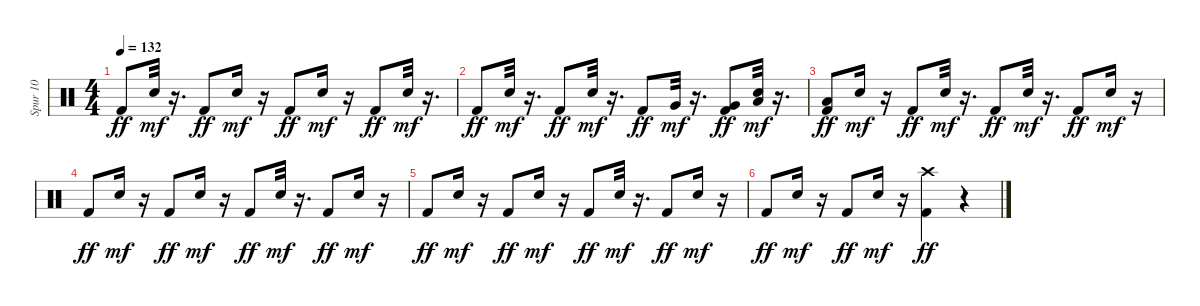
\track ("Spur 10" "Spur 10") {instrument percussion}
\staff {score}
\articulation defaults
\ts (4 4)
\tempo 132
\clef neutral
\ks c "Kick (hit) 2".8{dy ff} "Snare (hit) 2".32{dy mf}
r.16{d} "Kick (hit) 2".8{dy ff} "Snare (hit) 2".16{dy mf} r.16 "Kick (hit) 2".8{dy ff} "Snare (hit) 2".16{dy mf} r.16 "Kick (hit) 2".8{dy ff} "Snare (hit) 2".32{dy mf} r.16{d} |
"Kick (hit) 2".8{dy ff} "Snare (hit) 2".32{dy mf} r.16{d} "Kick (hit) 2".8{dy ff} "Snare (hit) 2".32{dy mf} r.16{d} "Kick (hit) 2".8{dy ff} "Very Low Tom (hit)".32{dy mf} r.16{d} ("Very Low Tom (hit)" "Kick (hit) 2").8{dy ff} ("Snare (hit) 2" "Low Floor Tom (hit)").32{dy mf} r.16{d} |
("Low Floor Tom (hit)" "Kick (hit) 2").8{dy ff} "Snare (hit) 2".16{dy mf} r.16 "Kick (hit) 2".8{dy ff} "Snare (hit) 2".32{dy mf} r.16{d} "Kick (hit) 2".8{dy ff} "Snare (hit) 2".32{dy mf} r.16{d} "Kick (hit) 2".8{dy ff} "Snare (hit) 2".16{dy mf} r.16 |
"Kick (hit) 2".8{dy ff} "Snare (hit) 2".16{dy mf} r.16 "Kick (hit) 2".8{dy ff} "Snare (hit) 2".16{dy mf} r.16 "Kick (hit) 2".8{dy ff} "Snare (hit) 2".32{dy mf} r.16{d} "Kick (hit) 2".8{dy ff} "Snare (hit) 2".16{dy mf} r.16 |
"Kick (hit) 2".8{dy ff} "Snare (hit) 2".16{dy mf} r.16 "Kick (hit) 2".8{dy ff} "Snare (hit) 2".16{dy mf} r.16 "Kick (hit) 2".8{dy ff} "Snare (hit) 2".32{dy mf} r.16{d} "Kick (hit) 2".8{dy ff} "Snare (hit) 2".16{dy mf} r.16 |
"Kick (hit) 2".8{dy ff} "Snare (hit) 2".16{dy mf} r.16 "Kick (hit) 2".8{dy ff} "Snare (hit) 2".16{dy mf} r.16 ("Crash high (hit)" "Kick (hit) 2").4{dy ff} r.4
